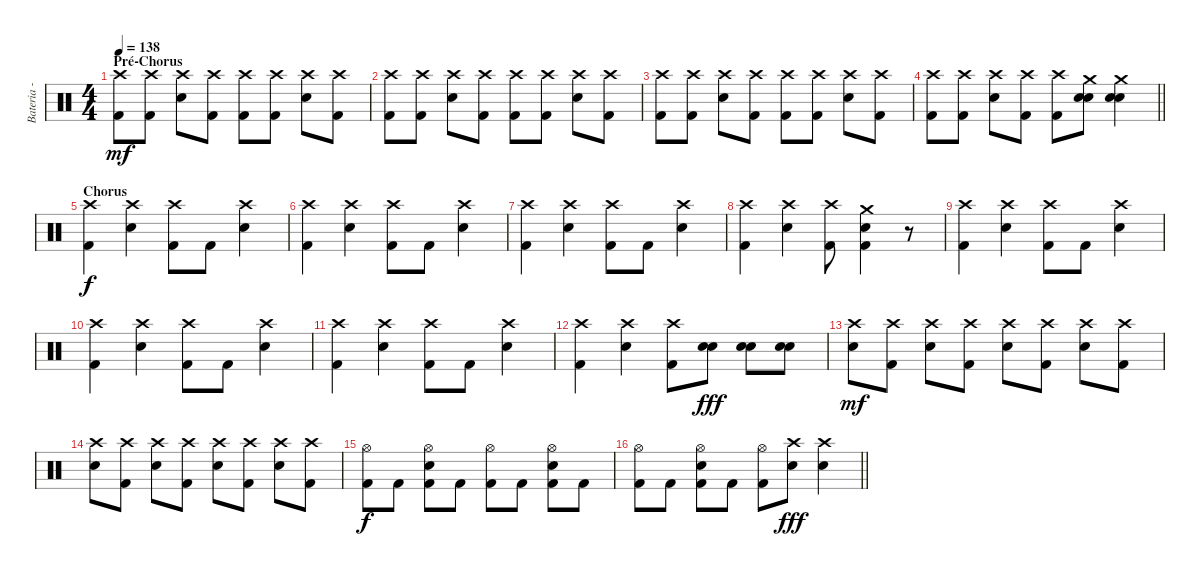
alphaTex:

\track ("Bateria - Larzon" "Bateria - ") {instrument percussion}
\staff {score}
\articulation defaults
\ts (4 4)
\section ("" "Pré-Chorus")
\tempo 138
\clef neutral
\ks c
("Kick (hit) 2" "Crash high (hit)").8{dy mf} ("Kick (hit) 2" "Crash high (hit)").8 ("Electric Snare (hit)" "Crash high (hit)").8 ("Kick (hit) 2" "Crash high (hit)").8 ("Kick (hit) 2" "Crash high (hit)").8 ("Kick (hit) 2" "Crash high (hit)").8 ("Electric Snare (hit)" "Crash high (hit)").8 ("Kick (hit) 2" "Crash high (hit)").8 |
("Kick (hit) 2" "Crash high (hit)").8 ("Kick (hit) 2" "Crash high (hit)").8 ("Electric Snare (hit)" "Crash high (hit)").8 ("Kick (hit) 2" "Crash high (hit)").8 ("Kick (hit) 2" "Crash high (hit)").8 ("Kick (hit) 2" "Crash high (hit)").8 ("Electric Snare (hit)" "Crash high (hit)").8 ("Kick (hit) 2" "Crash high (hit)").8 |
("Kick (hit) 2" "Crash high (hit)").8 ("Kick (hit) 2" "Crash high (hit)").8 ("Electric Snare (hit)" "Crash high (hit)").8 ("Kick (hit) 2" "Crash high (hit)").8 ("Kick (hit) 2" "Crash high (hit)").8 ("Kick (hit) 2" "Crash high (hit)").8 ("Electric Snare (hit)" "Crash high (hit)").8 ("Kick (hit) 2" "Crash high (hit)").8 |
\barLineRight lightlight
("Kick (hit) 2" "Crash high (hit)").8 ("Kick (hit) 2" "Crash high (hit)").8 ("Electric Snare (hit)" "Crash high (hit)").8 ("Kick (hit) 2" "Crash high (hit)").8 ("Kick (hit) 2" "Crash high (hit)").8 ("Electric Snare (hit)" "Electric Snare (hit)" "Crash medium (hit)").8 ("Electric Snare (hit)" "Electric Snare (hit)" "Crash medium (hit)").4 |
\section ("" "Chorus")
("Kick (hit) 2" "Crash high (hit)").4{dy f} ("Electric Snare (hit)" "Crash high (hit)").4 ("Kick (hit) 2" "Crash high (hit)").8 "Kick (hit) 2".8 ("Electric Snare (hit)" "Crash high (hit)").4 |
("Kick (hit) 2" "Crash high (hit)").4 ("Electric Snare (hit)" "Crash high (hit)").4 ("Kick (hit) 2" "Crash high (hit)").8 "Kick (hit) 2".8 ("Electric Snare (hit)" "Crash high (hit)").4 |
("Kick (hit) 2" "Crash high (hit)").4 ("Electric Snare (hit)" "Crash high (hit)").4 ("Kick (hit) 2" "Crash high (hit)").8 "Kick (hit) 2".8 ("Electric Snare (hit)" "Crash high (hit)").4 |
("Kick (hit) 2" "Crash high (hit)").4 ("Electric Snare (hit)" "Crash high (hit)").4 ("Kick (hit) 2" "Crash high (hit)").8 ("Electric Snare (hit)" "Crash medium (hit)" "Kick (hit) 2").4 r.8 |
("Kick (hit) 2" "Crash high (hit)").4 ("Electric Snare (hit)" "Crash high (hit)").4 ("Kick (hit) 2" "Crash high (hit)").8 "Kick (hit) 2".8 ("Electric Snare (hit)" "Crash high (hit)").4 |
("Kick (hit) 2" "Crash high (hit)").4 ("Electric Snare (hit)" "Crash high (hit)").4 ("Kick (hit) 2" "Crash high (hit)").8 "Kick (hit) 2".8 ("Electric Snare (hit)" "Crash high (hit)").4 |
("Kick (hit) 2" "Crash high (hit)").4 ("Electric Snare (hit)" "Crash high (hit)").4 ("Kick (hit) 2" "Crash high (hit)").8 "Kick (hit) 2".8 ("Electric Snare (hit)" "Crash high (hit)").4 |
("Kick (hit) 2" "Crash high (hit)").4 ("Electric Snare (hit)" "Crash high (hit)").4 ("Kick (hit) 2" "Crash high (hit)").8 ("Electric Snare (hit)" "Electric Snare (hit)").8{dy fff} ("Electric Snare (hit)" "Electric Snare (hit)").8 ("Electric Snare (hit)" "Electric Snare (hit)").8 |
("Electric Snare (hit)" "Crash high (hit)").8{dy mf} ("Kick (hit) 2" "Crash high (hit)").8 ("Electric Snare (hit)" "Crash high (hit)").8 ("Kick (hit) 2" "Crash high (hit)").8 ("Electric Snare (hit)" "Crash high (hit)").8 ("Kick (hit) 2" "Crash high (hit)").8 ("Electric Snare (hit)" "Crash high (hit)").8 ("Kick (hit) 2" "Crash high (hit)").8 |
("Electric Snare (hit)" "Crash high (hit)").8 ("Kick (hit) 2" "Crash high (hit)").8 ("Electric Snare (hit)" "Crash high (hit)").8 ("Kick (hit) 2" "Crash high (hit)").8 ("Electric Snare (hit)" "Crash high (hit)").8 ("Kick (hit) 2" "Crash high (hit)").8 ("Electric Snare (hit)" "Crash high (hit)").8 ("Kick (hit) 2" "Crash high (hit)").8 |
("Kick (hit) 2" "Hi-Hat (open)").8{dy f} "Kick (hit) 2".8 ("Kick (hit) 2" "Electric Snare (hit)" "Hi-Hat (open)").8 "Kick (hit) 2".8 ("Kick (hit) 2" "Hi-Hat (open)").8 "Kick (hit) 2".8 ("Kick (hit) 2" "Electric Snare (hit)" "Hi-Hat (open)").8 "Kick (hit) 2".8 |
\barLineRight lightlight
("Kick (hit) 2" "Hi-Hat (open)").8 "Kick (hit) 2".8 ("Kick (hit) 2" "Electric Snare (hit)" "Hi-Hat (open)").8 "Kick (hit) 2".8 ("Kick (hit) 2" "Hi-Hat (open)").8 ("Electric Snare (hit)" "Crash high (hit)").8{dy fff} ("Electric Snare (hit)" "Crash high (hit)").4
